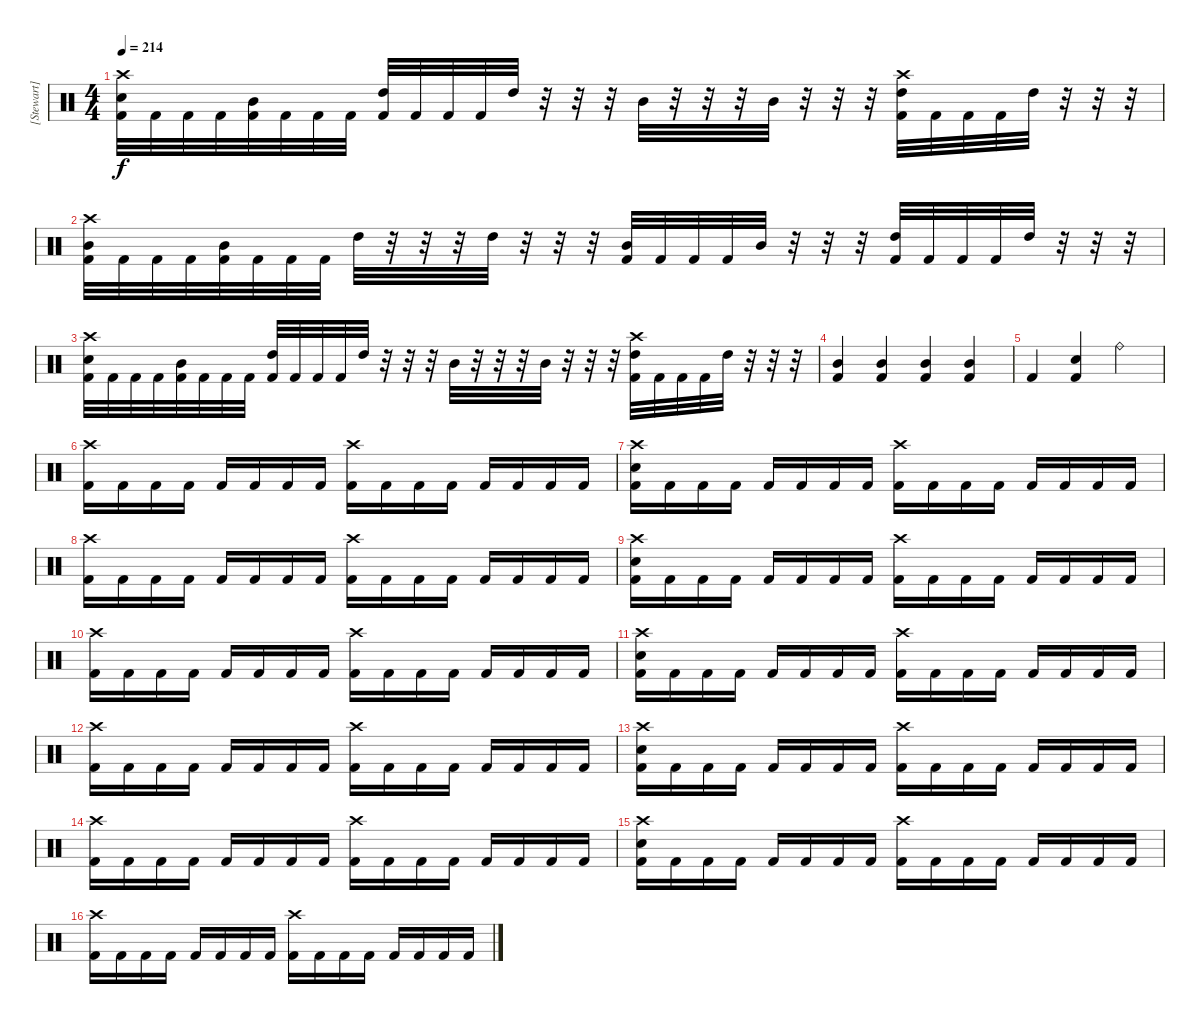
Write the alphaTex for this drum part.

\track ("[Stewart]" "[Stewart]") {instrument percussion}
\staff {score}
\articulation defaults
\ts (4 4)
\tempo 214
\clef neutral
\ks c
("Crash high (hit)" "Electric Snare (hit)" "Kick (hit) 2").32{dy f} "Kick (hit) 2".32 "Kick (hit) 2".32 "Kick (hit) 2".32 ("Mid Tom (hit)" "Kick (hit) 2").32 "Kick (hit) 2".32 "Kick (hit) 2".32 "Kick (hit) 2".32 ("High Tom (hit)" "Kick (hit) 2").32 "Kick (hit) 2".32 "Kick (hit) 2".32 "Kick (hit) 2".32 "High Tom (hit)".32 r.32 r.32 r.32 "Mid Tom (hit)".32 r.32 r.32 r.32 "Mid Tom (hit)".32 r.32 r.32 r.32 ("Crash high (hit)" "High Tom (hit)" "Kick (hit) 2").32 "Kick (hit) 2".32 "Kick (hit) 2".32 "Kick (hit) 2".32 "High Tom (hit)".32 r.32 r.32 r.32 |
("Crash high (hit)" "Mid Tom (hit)" "Kick (hit) 2").32 "Kick (hit) 2".32 "Kick (hit) 2".32 "Kick (hit) 2".32 ("Mid Tom (hit)" "Kick (hit) 2").32 "Kick (hit) 2".32 "Kick (hit) 2".32 "Kick (hit) 2".32 "High Tom (hit)".32 r.32 r.32 r.32 "High Tom (hit)".32 r.32 r.32 r.32 ("Mid Tom (hit)" "Kick (hit) 2").32 "Kick (hit) 2".32 "Kick (hit) 2".32 "Kick (hit) 2".32 "Mid Tom (hit)".32 r.32 r.32 r.32 ("High Tom (hit)" "Kick (hit) 2").32 "Kick (hit) 2".32 "Kick (hit) 2".32 "Kick (hit) 2".32 "High Tom (hit)".32 r.32 r.32 r.32 |
("Crash high (hit)" "Electric Snare (hit)" "Kick (hit) 2").32 "Kick (hit) 2".32 "Kick (hit) 2".32 "Kick (hit) 2".32 ("Mid Tom (hit)" "Kick (hit) 2").32 "Kick (hit) 2".32 "Kick (hit) 2".32 "Kick (hit) 2".32 ("High Tom (hit)" "Kick (hit) 2").32 "Kick (hit) 2".32 "Kick (hit) 2".32 "Kick (hit) 2".32 "High Tom (hit)".32 r.32 r.32 r.32 "Mid Tom (hit)".32 r.32 r.32 r.32 "Mid Tom (hit)".32 r.32 r.32 r.32 ("Crash high (hit)" "High Tom (hit)" "Kick (hit) 2").32 "Kick (hit) 2".32 "Kick (hit) 2".32 "Kick (hit) 2".32 "High Tom (hit)".32 r.32 r.32 r.32 |
("Mid Tom (hit)" "Kick (hit) 2").4 ("Mid Tom (hit)" "Kick (hit) 2").4 ("Mid Tom (hit)" "Kick (hit) 2").4 ("Mid Tom (hit)" "Kick (hit) 2").4 |
"Kick (hit) 2".4 ("Electric Snare (hit)" "Kick (hit) 2").4 "Ride (bell)".4 |
("Crash high (hit)" "Kick (hit) 2").16 "Kick (hit) 2".16 "Kick (hit) 2".16 "Kick (hit) 2".16 "Kick (hit) 2".16 "Kick (hit) 2".16 "Kick (hit) 2".16 "Kick (hit) 2".16 ("Crash high (hit)" "Kick (hit) 2").16 "Kick (hit) 2".16 "Kick (hit) 2".16 "Kick (hit) 2".16 "Kick (hit) 2".16 "Kick (hit) 2".16 "Kick (hit) 2".16 "Kick (hit) 2".16 |
("Crash high (hit)" "Electric Snare (hit)" "Kick (hit) 2").16 "Kick (hit) 2".16 "Kick (hit) 2".16 "Kick (hit) 2".16 "Kick (hit) 2".16 "Kick (hit) 2".16 "Kick (hit) 2".16 "Kick (hit) 2".16 ("Crash high (hit)" "Kick (hit) 2").16 "Kick (hit) 2".16 "Kick (hit) 2".16 "Kick (hit) 2".16 "Kick (hit) 2".16 "Kick (hit) 2".16 "Kick (hit) 2".16 "Kick (hit) 2".16 |
("Crash high (hit)" "Kick (hit) 2").16 "Kick (hit) 2".16 "Kick (hit) 2".16 "Kick (hit) 2".16 "Kick (hit) 2".16 "Kick (hit) 2".16 "Kick (hit) 2".16 "Kick (hit) 2".16 ("Crash high (hit)" "Kick (hit) 2").16 "Kick (hit) 2".16 "Kick (hit) 2".16 "Kick (hit) 2".16 "Kick (hit) 2".16 "Kick (hit) 2".16 "Kick (hit) 2".16 "Kick (hit) 2".16 |
("Crash high (hit)" "Electric Snare (hit)" "Kick (hit) 2").16 "Kick (hit) 2".16 "Kick (hit) 2".16 "Kick (hit) 2".16 "Kick (hit) 2".16 "Kick (hit) 2".16 "Kick (hit) 2".16 "Kick (hit) 2".16 ("Crash high (hit)" "Kick (hit) 2").16 "Kick (hit) 2".16 "Kick (hit) 2".16 "Kick (hit) 2".16 "Kick (hit) 2".16 "Kick (hit) 2".16 "Kick (hit) 2".16 "Kick (hit) 2".16 |
("Crash high (hit)" "Kick (hit) 2").16 "Kick (hit) 2".16 "Kick (hit) 2".16 "Kick (hit) 2".16 "Kick (hit) 2".16 "Kick (hit) 2".16 "Kick (hit) 2".16 "Kick (hit) 2".16 ("Crash high (hit)" "Kick (hit) 2").16 "Kick (hit) 2".16 "Kick (hit) 2".16 "Kick (hit) 2".16 "Kick (hit) 2".16 "Kick (hit) 2".16 "Kick (hit) 2".16 "Kick (hit) 2".16 |
("Crash high (hit)" "Electric Snare (hit)" "Kick (hit) 2").16 "Kick (hit) 2".16 "Kick (hit) 2".16 "Kick (hit) 2".16 "Kick (hit) 2".16 "Kick (hit) 2".16 "Kick (hit) 2".16 "Kick (hit) 2".16 ("Crash high (hit)" "Kick (hit) 2").16 "Kick (hit) 2".16 "Kick (hit) 2".16 "Kick (hit) 2".16 "Kick (hit) 2".16 "Kick (hit) 2".16 "Kick (hit) 2".16 "Kick (hit) 2".16 |
("Crash high (hit)" "Kick (hit) 2").16 "Kick (hit) 2".16 "Kick (hit) 2".16 "Kick (hit) 2".16 "Kick (hit) 2".16 "Kick (hit) 2".16 "Kick (hit) 2".16 "Kick (hit) 2".16 ("Crash high (hit)" "Kick (hit) 2").16 "Kick (hit) 2".16 "Kick (hit) 2".16 "Kick (hit) 2".16 "Kick (hit) 2".16 "Kick (hit) 2".16 "Kick (hit) 2".16 "Kick (hit) 2".16 |
("Crash high (hit)" "Electric Snare (hit)" "Kick (hit) 2").16 "Kick (hit) 2".16 "Kick (hit) 2".16 "Kick (hit) 2".16 "Kick (hit) 2".16 "Kick (hit) 2".16 "Kick (hit) 2".16 "Kick (hit) 2".16 ("Crash high (hit)" "Kick (hit) 2").16 "Kick (hit) 2".16 "Kick (hit) 2".16 "Kick (hit) 2".16 "Kick (hit) 2".16 "Kick (hit) 2".16 "Kick (hit) 2".16 "Kick (hit) 2".16 |
("Crash high (hit)" "Kick (hit) 2").16 "Kick (hit) 2".16 "Kick (hit) 2".16 "Kick (hit) 2".16 "Kick (hit) 2".16 "Kick (hit) 2".16 "Kick (hit) 2".16 "Kick (hit) 2".16 ("Crash high (hit)" "Kick (hit) 2").16 "Kick (hit) 2".16 "Kick (hit) 2".16 "Kick (hit) 2".16 "Kick (hit) 2".16 "Kick (hit) 2".16 "Kick (hit) 2".16 "Kick (hit) 2".16 |
("Crash high (hit)" "Electric Snare (hit)" "Kick (hit) 2").16 "Kick (hit) 2".16 "Kick (hit) 2".16 "Kick (hit) 2".16 "Kick (hit) 2".16 "Kick (hit) 2".16 "Kick (hit) 2".16 "Kick (hit) 2".16 ("Crash high (hit)" "Kick (hit) 2").16 "Kick (hit) 2".16 "Kick (hit) 2".16 "Kick (hit) 2".16 "Kick (hit) 2".16 "Kick (hit) 2".16 "Kick (hit) 2".16 "Kick (hit) 2".16 |
("Crash high (hit)" "Kick (hit) 2").16 "Kick (hit) 2".16 "Kick (hit) 2".16 "Kick (hit) 2".16 "Kick (hit) 2".16 "Kick (hit) 2".16 "Kick (hit) 2".16 "Kick (hit) 2".16 ("Crash high (hit)" "Kick (hit) 2").16 "Kick (hit) 2".16 "Kick (hit) 2".16 "Kick (hit) 2".16 "Kick (hit) 2".16 "Kick (hit) 2".16 "Kick (hit) 2".16 "Kick (hit) 2".16
